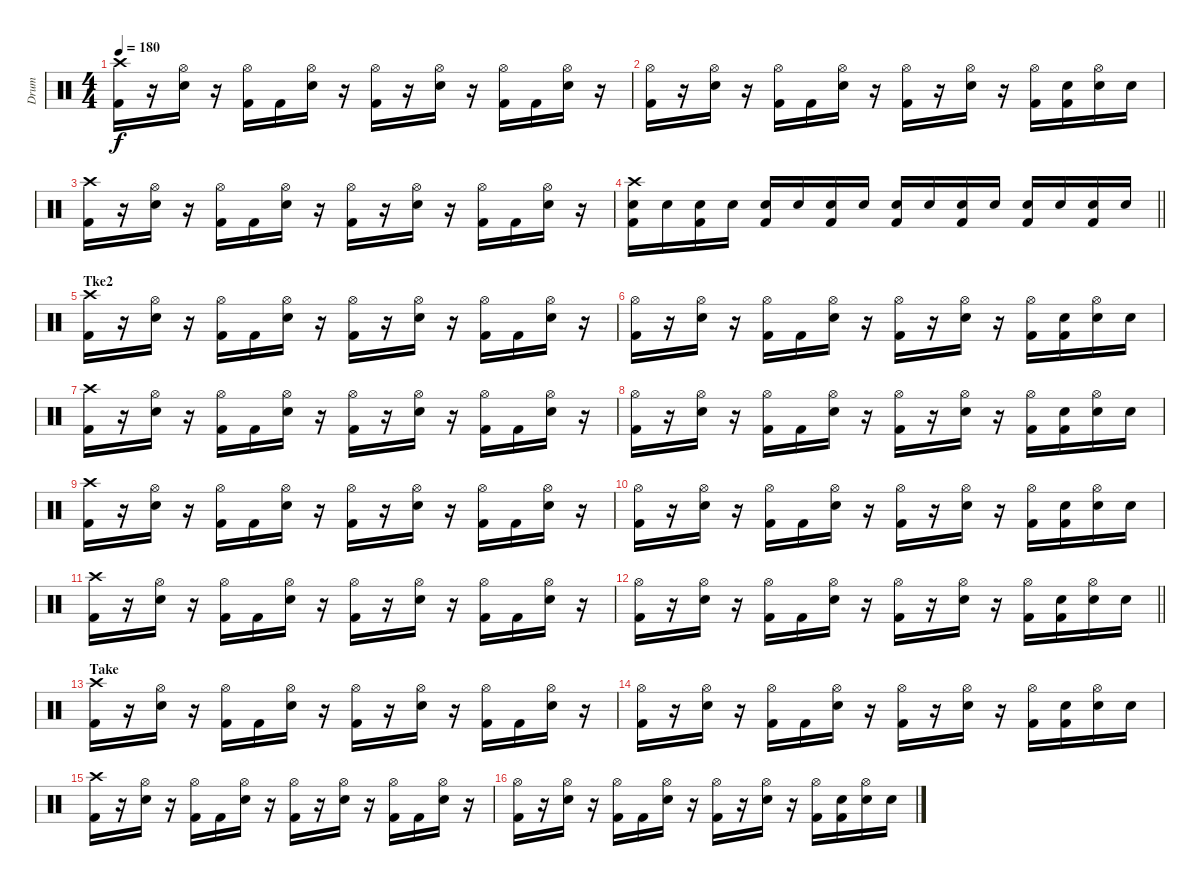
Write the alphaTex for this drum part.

\track ("Drum" "Drum") {instrument percussion}
\staff {score}
\articulation defaults
\ts (4 4)
\tempo 180
\clef neutral
\ks c
("Crash high (hit)" "Kick (hit) 2").16{dy f} r.16 ("Hi-Hat (open)" "Electric Snare (hit)").16 r.16 ("Hi-Hat (open)" "Kick (hit) 2").16 "Kick (hit) 2".16 ("Hi-Hat (open)" "Electric Snare (hit)").16 r.16 ("Hi-Hat (open)" "Kick (hit) 2").16 r.16 ("Hi-Hat (open)" "Electric Snare (hit)").16 r.16 ("Hi-Hat (open)" "Kick (hit) 2").16 "Kick (hit) 2".16 ("Hi-Hat (open)" "Electric Snare (hit)").16 r.16 |
("Hi-Hat (open)" "Kick (hit) 2").16 r.16 ("Hi-Hat (open)" "Electric Snare (hit)").16 r.16 ("Hi-Hat (open)" "Kick (hit) 2").16 "Kick (hit) 2".16 ("Hi-Hat (open)" "Electric Snare (hit)").16 r.16 ("Hi-Hat (open)" "Kick (hit) 2").16 r.16 ("Hi-Hat (open)" "Electric Snare (hit)").16 r.16 ("Hi-Hat (open)" "Kick (hit) 2").16 ("Electric Snare (hit)" "Kick (hit) 2").16 ("Hi-Hat (open)" "Electric Snare (hit)").16 "Electric Snare (hit)".16 |
("Crash high (hit)" "Kick (hit) 2").16 r.16 ("Hi-Hat (open)" "Electric Snare (hit)").16 r.16 ("Hi-Hat (open)" "Kick (hit) 2").16 "Kick (hit) 2".16 ("Hi-Hat (open)" "Electric Snare (hit)").16 r.16 ("Hi-Hat (open)" "Kick (hit) 2").16 r.16 ("Hi-Hat (open)" "Electric Snare (hit)").16 r.16 ("Hi-Hat (open)" "Kick (hit) 2").16 "Kick (hit) 2".16 ("Hi-Hat (open)" "Electric Snare (hit)").16 r.16 |
\barLineRight lightlight
("Crash high (hit)" "Electric Snare (hit)" "Kick (hit) 2").16 "Electric Snare (hit)".16 ("Electric Snare (hit)" "Kick (hit) 2").16 "Electric Snare (hit)".16 ("Electric Snare (hit)" "Kick (hit) 2").16 "Electric Snare (hit)".16 ("Electric Snare (hit)" "Kick (hit) 2").16 "Electric Snare (hit)".16 ("Electric Snare (hit)" "Kick (hit) 2").16 "Electric Snare (hit)".16 ("Electric Snare (hit)" "Kick (hit) 2").16 "Electric Snare (hit)".16 ("Electric Snare (hit)" "Kick (hit) 2").16 "Electric Snare (hit)".16 ("Electric Snare (hit)" "Kick (hit) 2").16 "Electric Snare (hit)".16 |
\section ("" "Tke2")
("Crash high (hit)" "Kick (hit) 2").16 r.16 ("Hi-Hat (open)" "Electric Snare (hit)").16 r.16 ("Hi-Hat (open)" "Kick (hit) 2").16 "Kick (hit) 2".16 ("Hi-Hat (open)" "Electric Snare (hit)").16 r.16 ("Hi-Hat (open)" "Kick (hit) 2").16 r.16 ("Hi-Hat (open)" "Electric Snare (hit)").16 r.16 ("Hi-Hat (open)" "Kick (hit) 2").16 "Kick (hit) 2".16 ("Hi-Hat (open)" "Electric Snare (hit)").16 r.16 |
("Hi-Hat (open)" "Kick (hit) 2").16 r.16 ("Hi-Hat (open)" "Electric Snare (hit)").16 r.16 ("Hi-Hat (open)" "Kick (hit) 2").16 "Kick (hit) 2".16 ("Hi-Hat (open)" "Electric Snare (hit)").16 r.16 ("Hi-Hat (open)" "Kick (hit) 2").16 r.16 ("Hi-Hat (open)" "Electric Snare (hit)").16 r.16 ("Hi-Hat (open)" "Kick (hit) 2").16 ("Electric Snare (hit)" "Kick (hit) 2").16 ("Hi-Hat (open)" "Electric Snare (hit)").16 "Electric Snare (hit)".16 |
("Crash high (hit)" "Kick (hit) 2").16 r.16 ("Hi-Hat (open)" "Electric Snare (hit)").16 r.16 ("Hi-Hat (open)" "Kick (hit) 2").16 "Kick (hit) 2".16 ("Hi-Hat (open)" "Electric Snare (hit)").16 r.16 ("Hi-Hat (open)" "Kick (hit) 2").16 r.16 ("Hi-Hat (open)" "Electric Snare (hit)").16 r.16 ("Hi-Hat (open)" "Kick (hit) 2").16 "Kick (hit) 2".16 ("Hi-Hat (open)" "Electric Snare (hit)").16 r.16 |
("Hi-Hat (open)" "Kick (hit) 2").16 r.16 ("Hi-Hat (open)" "Electric Snare (hit)").16 r.16 ("Hi-Hat (open)" "Kick (hit) 2").16 "Kick (hit) 2".16 ("Hi-Hat (open)" "Electric Snare (hit)").16 r.16 ("Hi-Hat (open)" "Kick (hit) 2").16 r.16 ("Hi-Hat (open)" "Electric Snare (hit)").16 r.16 ("Hi-Hat (open)" "Kick (hit) 2").16 ("Electric Snare (hit)" "Kick (hit) 2").16 ("Hi-Hat (open)" "Electric Snare (hit)").16 "Electric Snare (hit)".16 |
("Crash high (hit)" "Kick (hit) 2").16 r.16 ("Hi-Hat (open)" "Electric Snare (hit)").16 r.16 ("Hi-Hat (open)" "Kick (hit) 2").16 "Kick (hit) 2".16 ("Hi-Hat (open)" "Electric Snare (hit)").16 r.16 ("Hi-Hat (open)" "Kick (hit) 2").16 r.16 ("Hi-Hat (open)" "Electric Snare (hit)").16 r.16 ("Hi-Hat (open)" "Kick (hit) 2").16 "Kick (hit) 2".16 ("Hi-Hat (open)" "Electric Snare (hit)").16 r.16 |
("Hi-Hat (open)" "Kick (hit) 2").16 r.16 ("Hi-Hat (open)" "Electric Snare (hit)").16 r.16 ("Hi-Hat (open)" "Kick (hit) 2").16 "Kick (hit) 2".16 ("Hi-Hat (open)" "Electric Snare (hit)").16 r.16 ("Hi-Hat (open)" "Kick (hit) 2").16 r.16 ("Hi-Hat (open)" "Electric Snare (hit)").16 r.16 ("Hi-Hat (open)" "Kick (hit) 2").16 ("Electric Snare (hit)" "Kick (hit) 2").16 ("Hi-Hat (open)" "Electric Snare (hit)").16 "Electric Snare (hit)".16 |
("Crash high (hit)" "Kick (hit) 2").16 r.16 ("Hi-Hat (open)" "Electric Snare (hit)").16 r.16 ("Hi-Hat (open)" "Kick (hit) 2").16 "Kick (hit) 2".16 ("Hi-Hat (open)" "Electric Snare (hit)").16 r.16 ("Hi-Hat (open)" "Kick (hit) 2").16 r.16 ("Hi-Hat (open)" "Electric Snare (hit)").16 r.16 ("Hi-Hat (open)" "Kick (hit) 2").16 "Kick (hit) 2".16 ("Hi-Hat (open)" "Electric Snare (hit)").16 r.16 |
\barLineRight lightlight
("Hi-Hat (open)" "Kick (hit) 2").16 r.16 ("Hi-Hat (open)" "Electric Snare (hit)").16 r.16 ("Hi-Hat (open)" "Kick (hit) 2").16 "Kick (hit) 2".16 ("Hi-Hat (open)" "Electric Snare (hit)").16 r.16 ("Hi-Hat (open)" "Kick (hit) 2").16 r.16 ("Hi-Hat (open)" "Electric Snare (hit)").16 r.16 ("Hi-Hat (open)" "Kick (hit) 2").16 ("Electric Snare (hit)" "Kick (hit) 2").16 ("Hi-Hat (open)" "Electric Snare (hit)").16 "Electric Snare (hit)".16 |
\section ("" "Take")
("Crash high (hit)" "Kick (hit) 2").16 r.16 ("Hi-Hat (open)" "Electric Snare (hit)").16 r.16 ("Hi-Hat (open)" "Kick (hit) 2").16 "Kick (hit) 2".16 ("Hi-Hat (open)" "Electric Snare (hit)").16 r.16 ("Hi-Hat (open)" "Kick (hit) 2").16 r.16 ("Hi-Hat (open)" "Electric Snare (hit)").16 r.16 ("Hi-Hat (open)" "Kick (hit) 2").16 "Kick (hit) 2".16 ("Hi-Hat (open)" "Electric Snare (hit)").16 r.16 |
("Hi-Hat (open)" "Kick (hit) 2").16 r.16 ("Hi-Hat (open)" "Electric Snare (hit)").16 r.16 ("Hi-Hat (open)" "Kick (hit) 2").16 "Kick (hit) 2".16 ("Hi-Hat (open)" "Electric Snare (hit)").16 r.16 ("Hi-Hat (open)" "Kick (hit) 2").16 r.16 ("Hi-Hat (open)" "Electric Snare (hit)").16 r.16 ("Hi-Hat (open)" "Kick (hit) 2").16 ("Electric Snare (hit)" "Kick (hit) 2").16 ("Hi-Hat (open)" "Electric Snare (hit)").16 "Electric Snare (hit)".16 |
("Crash high (hit)" "Kick (hit) 2").16 r.16 ("Hi-Hat (open)" "Electric Snare (hit)").16 r.16 ("Hi-Hat (open)" "Kick (hit) 2").16 "Kick (hit) 2".16 ("Hi-Hat (open)" "Electric Snare (hit)").16 r.16 ("Hi-Hat (open)" "Kick (hit) 2").16 r.16 ("Hi-Hat (open)" "Electric Snare (hit)").16 r.16 ("Hi-Hat (open)" "Kick (hit) 2").16 "Kick (hit) 2".16 ("Hi-Hat (open)" "Electric Snare (hit)").16 r.16 |
("Hi-Hat (open)" "Kick (hit) 2").16 r.16 ("Hi-Hat (open)" "Electric Snare (hit)").16 r.16 ("Hi-Hat (open)" "Kick (hit) 2").16 "Kick (hit) 2".16 ("Hi-Hat (open)" "Electric Snare (hit)").16 r.16 ("Hi-Hat (open)" "Kick (hit) 2").16 r.16 ("Hi-Hat (open)" "Electric Snare (hit)").16 r.16 ("Hi-Hat (open)" "Kick (hit) 2").16 ("Electric Snare (hit)" "Kick (hit) 2").16 ("Hi-Hat (open)" "Electric Snare (hit)").16 "Electric Snare (hit)".16
